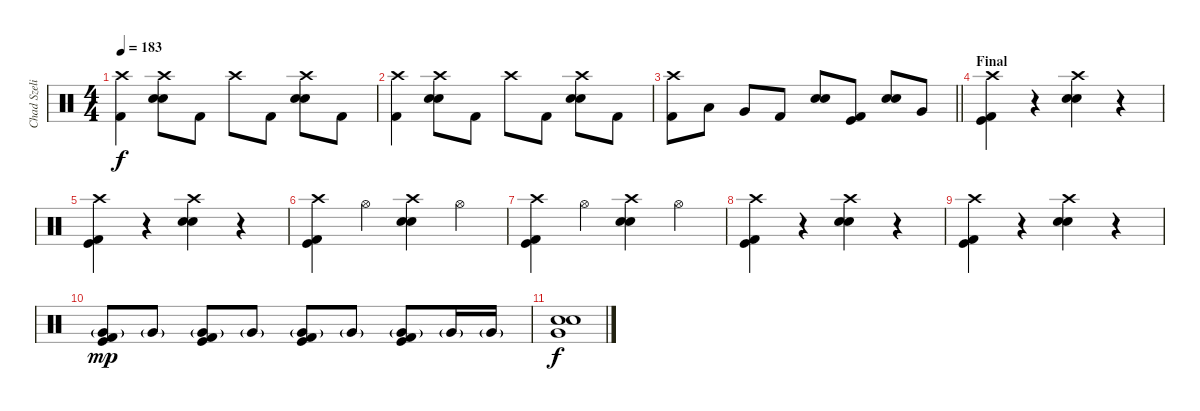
\track ("Chad Szeliga" "Chad Szeli") {instrument percussion}
\staff {score}
\articulation defaults
\ts (4 4)
\tempo 183
\clef neutral
\ks c
("Crash high (hit)" "Kick (hit) 2").4{dy f} ("Crash high (hit)" "Snare (hit) 2" "Snare (hit) 2").8 "Kick (hit) 2".8 "Crash high (hit)".8 "Kick (hit) 2".8 ("Crash high (hit)" "Snare (hit) 2" "Snare (hit) 2").8 "Kick (hit) 2".8 |
("Crash high (hit)" "Kick (hit) 2").4 ("Crash high (hit)" "Snare (hit) 2" "Snare (hit) 2").8 "Kick (hit) 2".8 "Crash high (hit)".8 "Kick (hit) 2".8 ("Crash high (hit)" "Snare (hit) 2" "Snare (hit) 2").8 "Kick (hit) 2".8 |
\barLineRight lightlight
("Crash high (hit)" "Kick (hit) 2").8 "Low Tom (hit)".8 "Very Low Tom (hit)".8 "Kick (hit) 2".8 ("Snare (hit) 2" "Snare (hit) 2").8 ("Kick (hit) 2" "Kick (hit)").8 ("Snare (hit) 2" "Snare (hit) 2").8 "Very Low Tom (hit)".8 |
\section ("" "Final")
("Crash high (hit)" "Kick (hit) 2" "Kick (hit)").4 r.4 ("Crash high (hit)" "Snare (hit) 2" "Snare (hit) 2").4 r.4 |
("Crash high (hit)" "Kick (hit) 2" "Kick (hit)").4 r.4 ("Crash high (hit)" "Snare (hit) 2" "Snare (hit) 2").4 r.4 |
("Crash high (hit)" "Kick (hit) 2" "Kick (hit)").4 "Hi-Hat (open)".4 ("Crash high (hit)" "Snare (hit) 2" "Snare (hit) 2").4 "Hi-Hat (open)".4 |
("Crash high (hit)" "Kick (hit) 2" "Kick (hit)").4 "Hi-Hat (open)".4 ("Crash high (hit)" "Snare (hit) 2" "Snare (hit) 2").4 "Hi-Hat (open)".4 |
("Crash high (hit)" "Kick (hit) 2" "Kick (hit)").4 r.4 ("Crash high (hit)" "Snare (hit) 2" "Snare (hit) 2").4 r.4 |
("Crash high (hit)" "Kick (hit) 2" "Kick (hit)").4 r.4 ("Crash high (hit)" "Snare (hit) 2" "Snare (hit) 2").4 r.4 |
("Kick (hit) 2" "Kick (hit)" "Very Low Tom (hit)"{g}).8{dy mp} "Very Low Tom (hit)"{g}.8 ("Kick (hit) 2" "Kick (hit)" "Very Low Tom (hit)"{g}).8 "Very Low Tom (hit)"{g}.8 ("Kick (hit) 2" "Kick (hit)" "Very Low Tom (hit)"{g}).8 "Very Low Tom (hit)"{g}.8 ("Kick (hit) 2" "Kick (hit)" "Very Low Tom (hit)"{g}).8 "Very Low Tom (hit)"{g}.16 "Very Low Tom (hit)"{g}.16 |
("Snare (hit) 2" "Snare (hit) 2" "Very Low Tom (hit)").1{dy f}
